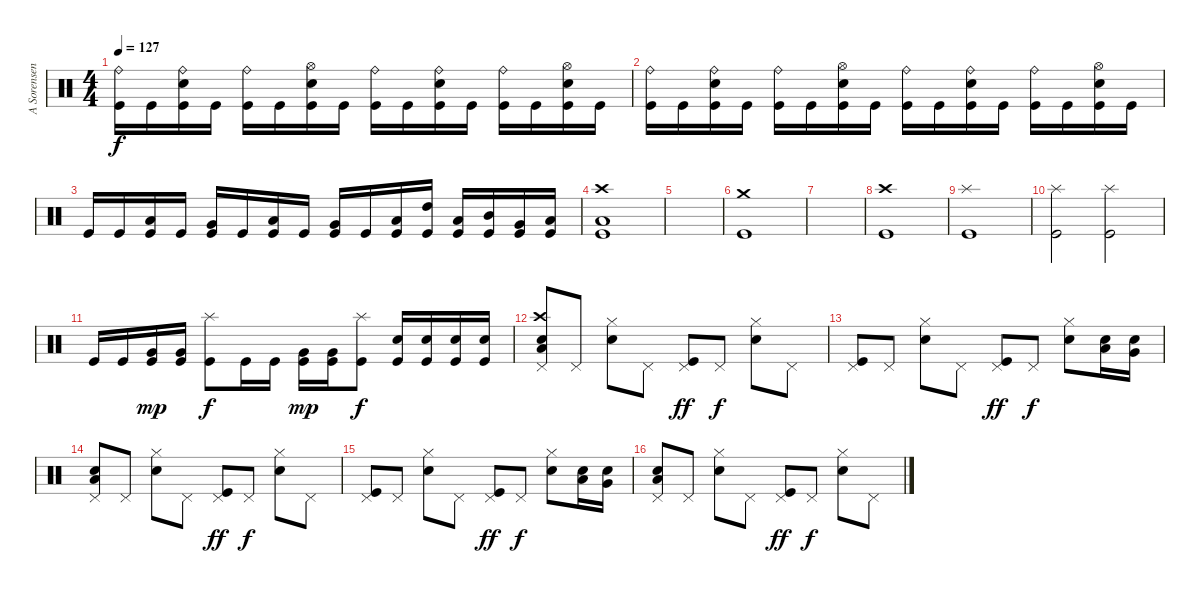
\track ("A Sorensen" "A Sorensen") {instrument percussion}
\staff {score}
\articulation defaults
\ts (4 4)
\tempo 127
\clef neutral
\ks c
("Ride (bell)" "Kick (hit)").16{dy f} "Kick (hit)".16 ("Ride (bell)" "Snare (hit) 2" "Kick (hit)").16 "Kick (hit)".16 ("Ride (bell)" "Kick (hit)").16 "Kick (hit)".16 ("Hi-Hat (open)" "Electric Snare (hit)" "Kick (hit)").16 "Kick (hit)".16 ("Ride (bell)" "Kick (hit)").16 "Kick (hit)".16 ("Ride (bell)" "Snare (hit) 2" "Kick (hit)").16 "Kick (hit)".16 ("Ride (bell)" "Kick (hit)").16 "Kick (hit)".16 ("Hi-Hat (open)" "Electric Snare (hit)" "Kick (hit)").16 "Kick (hit)".16 |
("Ride (bell)" "Kick (hit)").16 "Kick (hit)".16 ("Ride (bell)" "Snare (hit) 2" "Kick (hit)").16 "Kick (hit)".16 ("Ride (bell)" "Kick (hit)").16 "Kick (hit)".16 ("Hi-Hat (open)" "Electric Snare (hit)" "Kick (hit)").16 "Kick (hit)".16 ("Ride (bell)" "Kick (hit)").16 "Kick (hit)".16 ("Ride (bell)" "Snare (hit) 2" "Kick (hit)").16 "Kick (hit)".16 ("Ride (bell)" "Kick (hit)").16 "Kick (hit)".16 ("Hi-Hat (open)" "Electric Snare (hit)" "Kick (hit)").16 "Kick (hit)".16 |
"Kick (hit)".16 "Kick (hit)".16 ("Low Floor Tom (hit)" "Kick (hit)").16 "Kick (hit)".16 ("Very Low Tom (hit)" "Kick (hit)").16 "Kick (hit)".16 ("Low Floor Tom (hit)" "Kick (hit)").16 "Kick (hit)".16 ("Very Low Tom (hit)" "Kick (hit)").16 "Kick (hit)".16 ("Low Floor Tom (hit)" "Kick (hit)").16 ("High Tom (hit)" "Kick (hit)").16 ("Low Tom (hit)" "Kick (hit)").16 ("Mid Tom (hit)" "Kick (hit)").16 ("Very Low Tom (hit)" "Kick (hit)").16 ("Low Floor Tom (hit)" "Kick (hit)").16 |
("Crash high (hit)" "Low Floor Tom (hit)" "Kick (hit)").1 |
|
("Crash medium (hit)" "Kick (hit)").1 |
|
("Crash high (hit)" "Kick (hit)").1 |
("Splash (hit)" "Kick (hit)").1 |
("Splash (hit)" "Kick (hit)").2 ("Splash (hit)" "Kick (hit)").2 |
"Kick (hit)".16 "Kick (hit)".16 ("Very Low Tom (hit)" "Kick (hit)").16{dy mp} ("Very Low Tom (hit)" "Kick (hit)").16 ("Splash (hit)" "Kick (hit)").8{dy f} "Kick (hit)".16 "Kick (hit)".16 ("Very Low Tom (hit)" "Kick (hit)").16{dy mp} ("Very Low Tom (hit)" "Kick (hit)").16 ("Splash (hit)" "Kick (hit)").8{dy f} ("Electric Snare (hit)" "Kick (hit)").16 ("Electric Snare (hit)" "Kick (hit)").16 ("Snare (hit) 2" "Kick (hit)").16 ("Snare (hit) 2" "Kick (hit)").16 |
("Crash high (hit)" "Low Floor Tom (hit)" "Snare (hit) 2" "Pedal Hi-Hat (hit)").8 "Pedal Hi-Hat (hit)".8 ("Electric Snare (hit)" "Hi-Hat (closed)").8 "Pedal Hi-Hat (hit)".8 ("Pedal Hi-Hat (hit)" "Kick (hit)").8{dy ff} "Pedal Hi-Hat (hit)".8{dy f} ("Electric Snare (hit)" "Hi-Hat (closed)").8 "Pedal Hi-Hat (hit)".8 |
("Pedal Hi-Hat (hit)" "Kick (hit)").8 "Pedal Hi-Hat (hit)".8 ("Electric Snare (hit)" "Hi-Hat (closed)").8 "Pedal Hi-Hat (hit)".8 ("Pedal Hi-Hat (hit)" "Kick (hit)").8{dy ff} "Pedal Hi-Hat (hit)".8{dy f} ("Electric Snare (hit)" "Hi-Hat (closed)").8 ("Low Floor Tom (hit)" "Snare (hit) 2").16 ("Very Low Tom (hit)" "Electric Snare (hit)").16 |
("Low Floor Tom (hit)" "Snare (hit) 2" "Pedal Hi-Hat (hit)").8 "Pedal Hi-Hat (hit)".8 ("Electric Snare (hit)" "Hi-Hat (closed)").8 "Pedal Hi-Hat (hit)".8 ("Pedal Hi-Hat (hit)" "Kick (hit)").8{dy ff} "Pedal Hi-Hat (hit)".8{dy f} ("Electric Snare (hit)" "Hi-Hat (closed)").8 "Pedal Hi-Hat (hit)".8 |
("Pedal Hi-Hat (hit)" "Kick (hit)").8 "Pedal Hi-Hat (hit)".8 ("Electric Snare (hit)" "Hi-Hat (closed)").8 "Pedal Hi-Hat (hit)".8 ("Pedal Hi-Hat (hit)" "Kick (hit)").8{dy ff} "Pedal Hi-Hat (hit)".8{dy f} ("Electric Snare (hit)" "Hi-Hat (closed)").8 ("Low Floor Tom (hit)" "Snare (hit) 2").16 ("Very Low Tom (hit)" "Electric Snare (hit)").16 |
("Low Floor Tom (hit)" "Snare (hit) 2" "Pedal Hi-Hat (hit)").8 "Pedal Hi-Hat (hit)".8 ("Electric Snare (hit)" "Hi-Hat (closed)").8 "Pedal Hi-Hat (hit)".8 ("Pedal Hi-Hat (hit)" "Kick (hit)").8{dy ff} "Pedal Hi-Hat (hit)".8{dy f} ("Electric Snare (hit)" "Hi-Hat (closed)").8 "Pedal Hi-Hat (hit)".8
